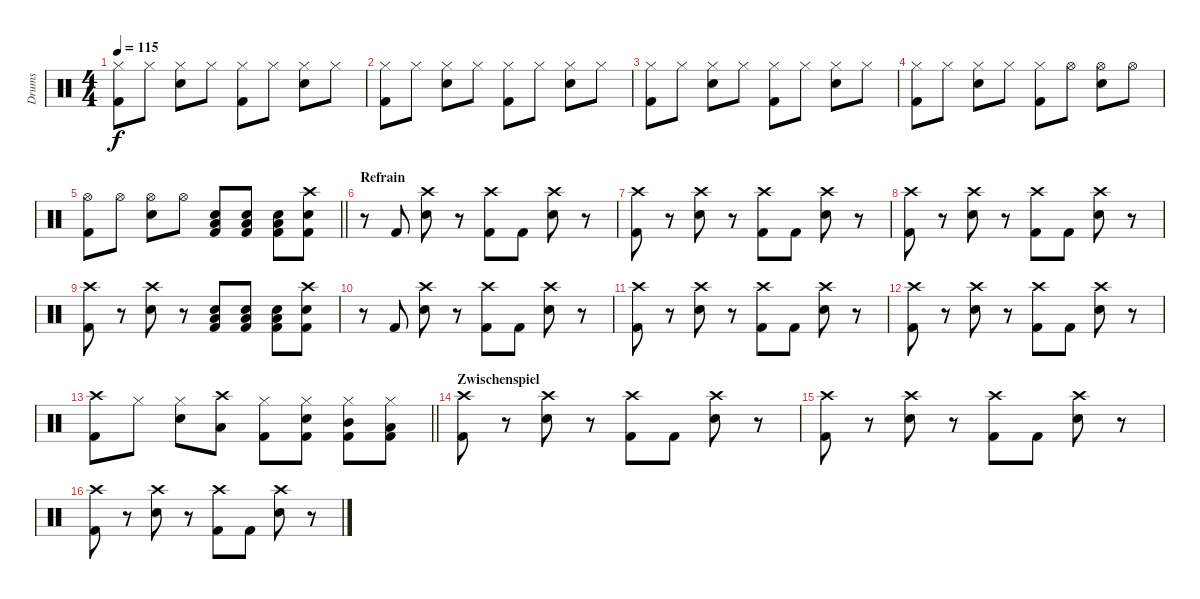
\track ("Drums" "Drums") {instrument percussion}
\staff {score}
\articulation defaults
\ts (4 4)
\tempo 115
\clef neutral
\ks c
("Hi-Hat (closed)" "Kick (hit) 2").8{dy f} "Hi-Hat (closed)".8 ("Hi-Hat (closed)" "Snare (hit) 2").8 "Hi-Hat (closed)".8 ("Hi-Hat (closed)" "Kick (hit) 2").8 "Hi-Hat (closed)".8 ("Hi-Hat (closed)" "Snare (hit) 2").8 "Hi-Hat (closed)".8 |
("Hi-Hat (closed)" "Kick (hit) 2").8 "Hi-Hat (closed)".8 ("Hi-Hat (closed)" "Snare (hit) 2").8 "Hi-Hat (closed)".8 ("Hi-Hat (closed)" "Kick (hit) 2").8 "Hi-Hat (closed)".8 ("Hi-Hat (closed)" "Snare (hit) 2").8 "Hi-Hat (closed)".8 |
("Hi-Hat (closed)" "Kick (hit) 2").8 "Hi-Hat (closed)".8 ("Hi-Hat (closed)" "Snare (hit) 2").8 "Hi-Hat (closed)".8 ("Hi-Hat (closed)" "Kick (hit) 2").8 "Hi-Hat (closed)".8 ("Hi-Hat (closed)" "Snare (hit) 2").8 "Hi-Hat (closed)".8 |
("Hi-Hat (closed)" "Kick (hit) 2").8 "Hi-Hat (closed)".8 ("Hi-Hat (closed)" "Snare (hit) 2").8 "Hi-Hat (closed)".8 ("Hi-Hat (closed)" "Kick (hit) 2").8 "Hi-Hat (open)".8 ("Hi-Hat (open)" "Snare (hit) 2").8 "Hi-Hat (open)".8 |
\barLineRight lightlight
("Hi-Hat (open)" "Kick (hit) 2").8 "Hi-Hat (open)".8 ("Hi-Hat (open)" "Snare (hit) 2").8 "Hi-Hat (open)".8 ("Snare (hit) 2" "Low Tom (hit)" "Kick (hit) 2").8 ("Snare (hit) 2" "Low Tom (hit)" "Kick (hit) 2").8 ("Snare (hit) 2" "Low Tom (hit)" "Kick (hit) 2").8 ("Crash high (hit)" "Snare (hit) 2" "Kick (hit) 2").8 |
\section ("" "Refrain")
r.8 "Kick (hit) 2".8 ("Crash high (hit)" "Snare (hit) 2").8 r.8 ("Crash high (hit)" "Kick (hit) 2").8 "Kick (hit) 2".8 ("Crash high (hit)" "Snare (hit) 2").8 r.8 |
("Crash high (hit)" "Kick (hit) 2").8 r.8 ("Crash high (hit)" "Snare (hit) 2").8 r.8 ("Crash high (hit)" "Kick (hit) 2").8 "Kick (hit) 2".8 ("Crash high (hit)" "Snare (hit) 2").8 r.8 |
("Crash high (hit)" "Kick (hit) 2").8 r.8 ("Crash high (hit)" "Snare (hit) 2").8 r.8 ("Crash high (hit)" "Kick (hit) 2").8 "Kick (hit) 2".8 ("Crash high (hit)" "Snare (hit) 2").8 r.8 |
("Crash high (hit)" "Kick (hit) 2").8 r.8 ("Crash high (hit)" "Snare (hit) 2").8 r.8 ("Snare (hit) 2" "Low Tom (hit)" "Kick (hit) 2").8 ("Snare (hit) 2" "Low Tom (hit)" "Kick (hit) 2").8 ("Snare (hit) 2" "Low Tom (hit)" "Kick (hit) 2").8 ("Crash high (hit)" "Snare (hit) 2" "Kick (hit) 2").8 |
r.8 "Kick (hit) 2".8 ("Crash high (hit)" "Snare (hit) 2").8 r.8 ("Crash high (hit)" "Kick (hit) 2").8 "Kick (hit) 2".8 ("Crash high (hit)" "Snare (hit) 2").8 r.8 |
("Crash high (hit)" "Kick (hit) 2").8 r.8 ("Crash high (hit)" "Snare (hit) 2").8 r.8 ("Crash high (hit)" "Kick (hit) 2").8 "Kick (hit) 2".8 ("Crash high (hit)" "Snare (hit) 2").8 r.8 |
("Crash high (hit)" "Kick (hit) 2").8 r.8 ("Crash high (hit)" "Snare (hit) 2").8 r.8 ("Crash high (hit)" "Kick (hit) 2").8 "Kick (hit) 2".8 ("Crash high (hit)" "Snare (hit) 2").8 r.8 |
\barLineRight lightlight
("Crash high (hit)" "Kick (hit) 2").8 "Hi-Hat (closed)".8 ("Hi-Hat (closed)" "Snare (hit) 2").8 ("Crash high (hit)" "Low Tom (hit)").8 ("Hi-Hat (closed)" "Kick (hit) 2").8 ("Hi-Hat (closed)" "Snare (hit) 2" "Kick (hit) 2").8 ("Hi-Hat (closed)" "Mid Tom (hit)" "Kick (hit) 2").8 ("Hi-Hat (closed)" "Low Tom (hit)" "Kick (hit) 2").8 |
\section ("" "Zwischenspiel")
("Crash high (hit)" "Kick (hit) 2").8 r.8 ("Crash high (hit)" "Snare (hit) 2").8 r.8 ("Crash high (hit)" "Kick (hit) 2").8 "Kick (hit) 2".8 ("Crash high (hit)" "Snare (hit) 2").8 r.8 |
("Crash high (hit)" "Kick (hit) 2").8 r.8 ("Crash high (hit)" "Snare (hit) 2").8 r.8 ("Crash high (hit)" "Kick (hit) 2").8 "Kick (hit) 2".8 ("Crash high (hit)" "Snare (hit) 2").8 r.8 |
("Crash high (hit)" "Kick (hit) 2").8 r.8 ("Crash high (hit)" "Snare (hit) 2").8 r.8 ("Crash high (hit)" "Kick (hit) 2").8 "Kick (hit) 2".8 ("Crash high (hit)" "Snare (hit) 2").8 r.8
